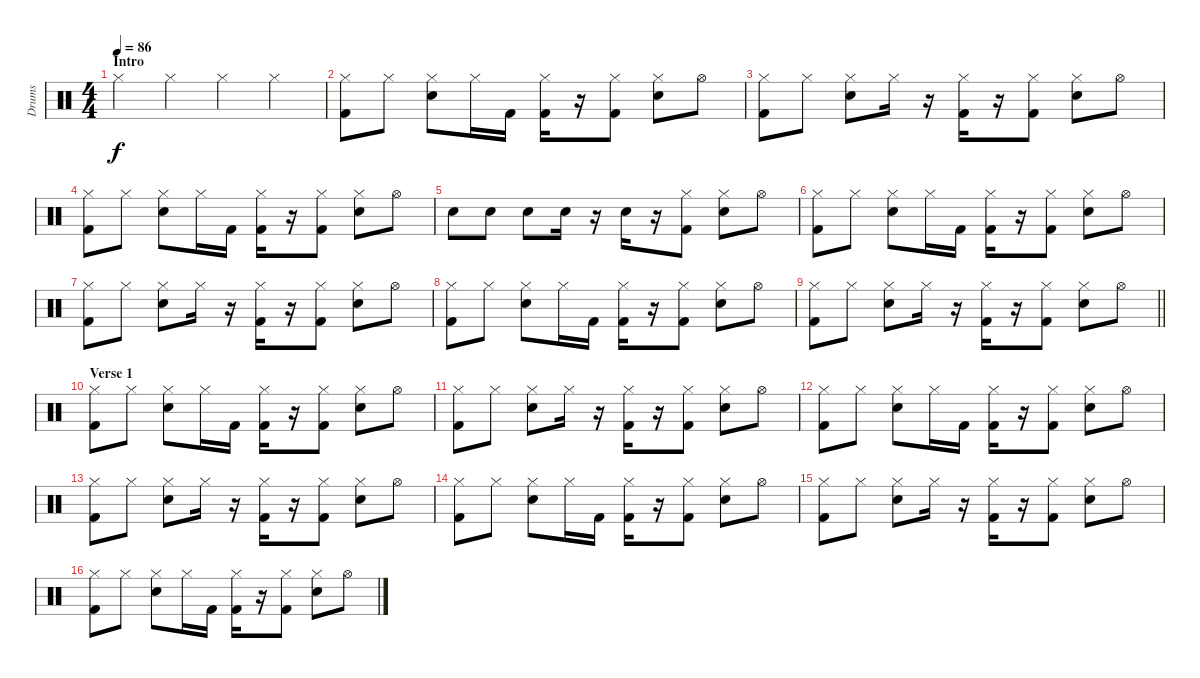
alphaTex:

\track ("Drums" "Drums") {instrument percussion}
\staff {score}
\articulation defaults
\ts (4 4)
\section ("" "Intro")
\tempo 86
\clef neutral
\ks c "Hi-Hat (closed)".4{dy f} "Hi-Hat (closed)".4 "Hi-Hat (closed)".4 "Hi-Hat (closed)".4
|
("Kick (hit) 2" "Hi-Hat (closed)").8 "Hi-Hat (closed)".8 ("Snare (hit) 2" "Hi-Hat (closed)").8 "Hi-Hat (closed)".16 "Kick (hit) 2".16 ("Kick (hit) 2" "Hi-Hat (closed)").16 r.16 ("Kick (hit) 2" "Hi-Hat (closed)").8 ("Snare (hit) 2" "Hi-Hat (closed)").8 "Hi-Hat (open)".8 |
("Kick (hit) 2" "Hi-Hat (closed)").8 "Hi-Hat (closed)".8 ("Snare (hit) 2" "Hi-Hat (closed)").8 "Hi-Hat (closed)".16 r.16 ("Kick (hit) 2" "Hi-Hat (closed)").16 r.16 ("Kick (hit) 2" "Hi-Hat (closed)").8 ("Snare (hit) 2" "Hi-Hat (closed)").8 "Hi-Hat (open)".8 |
("Kick (hit) 2" "Hi-Hat (closed)").8 "Hi-Hat (closed)".8 ("Snare (hit) 2" "Hi-Hat (closed)").8 "Hi-Hat (closed)".16 "Kick (hit) 2".16 ("Kick (hit) 2" "Hi-Hat (closed)").16 r.16 ("Kick (hit) 2" "Hi-Hat (closed)").8 ("Snare (hit) 2" "Hi-Hat (closed)").8 "Hi-Hat (open)".8 |
"Snare (hit) 2".8 "Snare (hit) 2".8 "Snare (hit) 2".8 "Snare (hit) 2".16 r.16 "Snare (hit) 2".16 r.16 ("Kick (hit) 2" "Hi-Hat (closed)").8 ("Snare (hit) 2" "Hi-Hat (closed)").8 "Hi-Hat (open)".8 |
("Kick (hit) 2" "Hi-Hat (closed)").8 "Hi-Hat (closed)".8 ("Snare (hit) 2" "Hi-Hat (closed)").8 "Hi-Hat (closed)".16 "Kick (hit) 2".16 ("Kick (hit) 2" "Hi-Hat (closed)").16 r.16 ("Kick (hit) 2" "Hi-Hat (closed)").8 ("Snare (hit) 2" "Hi-Hat (closed)").8 "Hi-Hat (open)".8 |
("Kick (hit) 2" "Hi-Hat (closed)").8 "Hi-Hat (closed)".8 ("Snare (hit) 2" "Hi-Hat (closed)").8 "Hi-Hat (closed)".16 r.16 ("Kick (hit) 2" "Hi-Hat (closed)").16 r.16 ("Kick (hit) 2" "Hi-Hat (closed)").8 ("Snare (hit) 2" "Hi-Hat (closed)").8 "Hi-Hat (open)".8 |
("Kick (hit) 2" "Hi-Hat (closed)").8 "Hi-Hat (closed)".8 ("Snare (hit) 2" "Hi-Hat (closed)").8 "Hi-Hat (closed)".16 "Kick (hit) 2".16 ("Kick (hit) 2" "Hi-Hat (closed)").16 r.16 ("Kick (hit) 2" "Hi-Hat (closed)").8 ("Snare (hit) 2" "Hi-Hat (closed)").8 "Hi-Hat (open)".8 |
\barLineRight lightlight
("Kick (hit) 2" "Hi-Hat (closed)").8 "Hi-Hat (closed)".8 ("Snare (hit) 2" "Hi-Hat (closed)").8 "Hi-Hat (closed)".16 r.16 ("Kick (hit) 2" "Hi-Hat (closed)").16 r.16 ("Kick (hit) 2" "Hi-Hat (closed)").8 ("Snare (hit) 2" "Hi-Hat (closed)").8 "Hi-Hat (open)".8 |
\section ("" "Verse 1")
("Kick (hit) 2" "Hi-Hat (closed)").8 "Hi-Hat (closed)".8 ("Snare (hit) 2" "Hi-Hat (closed)").8 "Hi-Hat (closed)".16 "Kick (hit) 2".16 ("Kick (hit) 2" "Hi-Hat (closed)").16 r.16 ("Kick (hit) 2" "Hi-Hat (closed)").8 ("Snare (hit) 2" "Hi-Hat (closed)").8 "Hi-Hat (open)".8 |
("Kick (hit) 2" "Hi-Hat (closed)").8 "Hi-Hat (closed)".8 ("Snare (hit) 2" "Hi-Hat (closed)").8 "Hi-Hat (closed)".16 r.16 ("Kick (hit) 2" "Hi-Hat (closed)").16 r.16 ("Kick (hit) 2" "Hi-Hat (closed)").8 ("Snare (hit) 2" "Hi-Hat (closed)").8 "Hi-Hat (open)".8 |
("Kick (hit) 2" "Hi-Hat (closed)").8 "Hi-Hat (closed)".8 ("Snare (hit) 2" "Hi-Hat (closed)").8 "Hi-Hat (closed)".16 "Kick (hit) 2".16 ("Kick (hit) 2" "Hi-Hat (closed)").16 r.16 ("Kick (hit) 2" "Hi-Hat (closed)").8 ("Snare (hit) 2" "Hi-Hat (closed)").8 "Hi-Hat (open)".8 |
("Kick (hit) 2" "Hi-Hat (closed)").8 "Hi-Hat (closed)".8 ("Snare (hit) 2" "Hi-Hat (closed)").8 "Hi-Hat (closed)".16 r.16 ("Kick (hit) 2" "Hi-Hat (closed)").16 r.16 ("Kick (hit) 2" "Hi-Hat (closed)").8 ("Snare (hit) 2" "Hi-Hat (closed)").8 "Hi-Hat (open)".8 |
("Kick (hit) 2" "Hi-Hat (closed)").8 "Hi-Hat (closed)".8 ("Snare (hit) 2" "Hi-Hat (closed)").8 "Hi-Hat (closed)".16 "Kick (hit) 2".16 ("Kick (hit) 2" "Hi-Hat (closed)").16 r.16 ("Kick (hit) 2" "Hi-Hat (closed)").8 ("Snare (hit) 2" "Hi-Hat (closed)").8 "Hi-Hat (open)".8 |
("Kick (hit) 2" "Hi-Hat (closed)").8 "Hi-Hat (closed)".8 ("Snare (hit) 2" "Hi-Hat (closed)").8 "Hi-Hat (closed)".16 r.16 ("Kick (hit) 2" "Hi-Hat (closed)").16 r.16 ("Kick (hit) 2" "Hi-Hat (closed)").8 ("Snare (hit) 2" "Hi-Hat (closed)").8 "Hi-Hat (open)".8 |
("Kick (hit) 2" "Hi-Hat (closed)").8 "Hi-Hat (closed)".8 ("Snare (hit) 2" "Hi-Hat (closed)").8 "Hi-Hat (closed)".16 "Kick (hit) 2".16 ("Kick (hit) 2" "Hi-Hat (closed)").16 r.16 ("Kick (hit) 2" "Hi-Hat (closed)").8 ("Snare (hit) 2" "Hi-Hat (closed)").8 "Hi-Hat (open)".8
